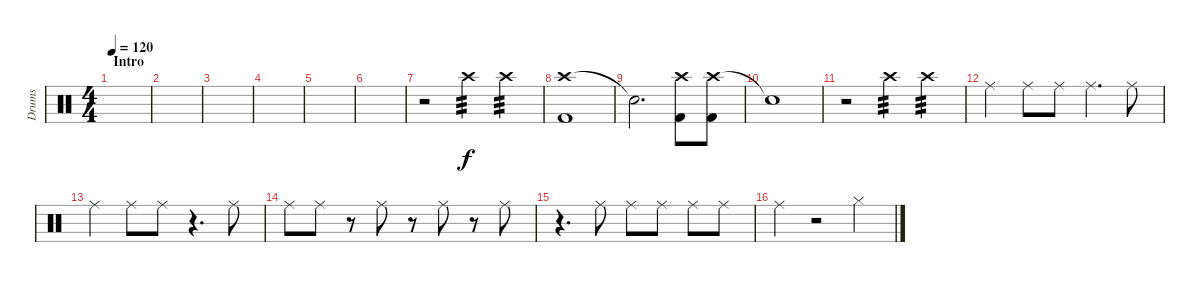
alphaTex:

\track ("Drums" "Drums") {instrument percussion}
\staff {score}
\articulation defaults
\ts (4 4)
\section ("" "Intro")
\tempo 120
\clef neutral
\ks c
|
|
|
|
|
|
r.2 "Crash high (hit)".4{tp 3} "Crash high (hit)".4{tp 3} |
("Crash high (hit)" "Kick (hit) 2").1 |
"Snare (hit)"{t}.2{d} ("Crash high (hit)" "Kick (hit) 2").8 ("Crash high (hit)" "Kick (hit) 2").8 |
"Snare (hit)"{t}.1 |
r.2 "Crash high (hit)".4{tp 3} "Crash high (hit)".4{tp 3} |
"Ride (middle)".4 "Ride (middle)".8 "Ride (middle)".8 "Ride (middle)".4{d} "Ride (middle)".8 |
"Ride (middle)".4 "Ride (middle)".8 "Ride (middle)".8 r.4{d} "Ride (middle)".8 |
"Ride (middle)".8 "Ride (middle)".8 r.8 "Ride (middle)".8 r.8 "Ride (middle)".8 r.8 "Ride (middle)".8 |
r.4{d} "Ride (middle)".8 "Ride (middle)".8 "Ride (middle)".8 "Ride (middle)".8 "Ride (middle)".8 |
"Ride (middle)".4 r.2 "Hi-Hat (closed)".4
